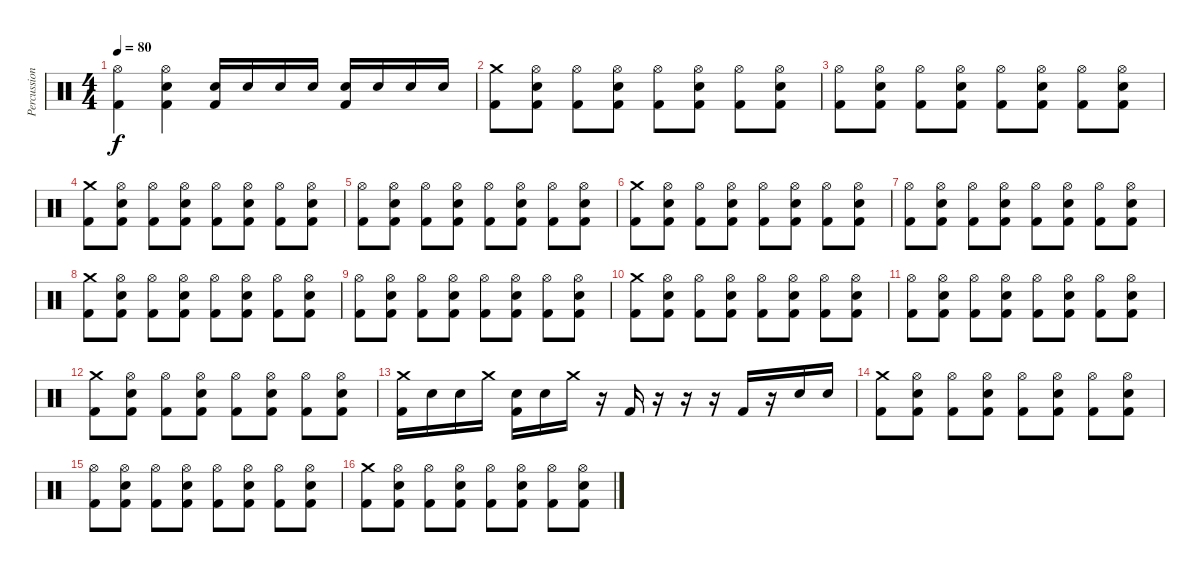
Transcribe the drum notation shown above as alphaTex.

\track ("Percussion" "Percussion") {instrument percussion}
\staff {score}
\articulation defaults
\ts (4 4)
\tempo 80
\clef neutral
\ks c
("Hi-Hat (open)" "Kick (hit) 2").4{dy f} ("Hi-Hat (open)" "Electric Snare (hit)" "Kick (hit) 2").4 ("Electric Snare (hit)" "Kick (hit) 2").16 "Electric Snare (hit)".16 "Electric Snare (hit)".16 "Electric Snare (hit)".16 ("Electric Snare (hit)" "Kick (hit) 2").16 "Electric Snare (hit)".16 "Electric Snare (hit)".16 "Electric Snare (hit)".16 |
("Crash medium (hit)" "Kick (hit) 2").8 ("Hi-Hat (open)" "Electric Snare (hit)" "Kick (hit) 2").8 ("Hi-Hat (open)" "Kick (hit) 2").8 ("Hi-Hat (open)" "Electric Snare (hit)" "Kick (hit) 2").8 ("Hi-Hat (open)" "Kick (hit) 2").8 ("Hi-Hat (open)" "Electric Snare (hit)" "Kick (hit) 2").8 ("Hi-Hat (open)" "Kick (hit) 2").8 ("Hi-Hat (open)" "Electric Snare (hit)" "Kick (hit) 2").8 |
("Hi-Hat (open)" "Kick (hit) 2").8 ("Hi-Hat (open)" "Electric Snare (hit)" "Kick (hit) 2").8 ("Hi-Hat (open)" "Kick (hit) 2").8 ("Hi-Hat (open)" "Electric Snare (hit)" "Kick (hit) 2").8 ("Hi-Hat (open)" "Kick (hit) 2").8 ("Hi-Hat (open)" "Electric Snare (hit)" "Kick (hit) 2").8 ("Hi-Hat (open)" "Kick (hit) 2").8 ("Hi-Hat (open)" "Electric Snare (hit)" "Kick (hit) 2").8 |
("Crash medium (hit)" "Kick (hit) 2").8 ("Hi-Hat (open)" "Electric Snare (hit)" "Kick (hit) 2").8 ("Hi-Hat (open)" "Kick (hit) 2").8 ("Hi-Hat (open)" "Electric Snare (hit)" "Kick (hit) 2").8 ("Hi-Hat (open)" "Kick (hit) 2").8 ("Hi-Hat (open)" "Electric Snare (hit)" "Kick (hit) 2").8 ("Hi-Hat (open)" "Kick (hit) 2").8 ("Hi-Hat (open)" "Electric Snare (hit)" "Kick (hit) 2").8 |
("Hi-Hat (open)" "Kick (hit) 2").8 ("Hi-Hat (open)" "Electric Snare (hit)" "Kick (hit) 2").8 ("Hi-Hat (open)" "Kick (hit) 2").8 ("Hi-Hat (open)" "Electric Snare (hit)" "Kick (hit) 2").8 ("Hi-Hat (open)" "Kick (hit) 2").8 ("Hi-Hat (open)" "Electric Snare (hit)" "Kick (hit) 2").8 ("Hi-Hat (open)" "Kick (hit) 2").8 ("Hi-Hat (open)" "Electric Snare (hit)" "Kick (hit) 2").8 |
("Crash medium (hit)" "Kick (hit) 2").8 ("Hi-Hat (open)" "Electric Snare (hit)" "Kick (hit) 2").8 ("Hi-Hat (open)" "Kick (hit) 2").8 ("Hi-Hat (open)" "Electric Snare (hit)" "Kick (hit) 2").8 ("Hi-Hat (open)" "Kick (hit) 2").8 ("Hi-Hat (open)" "Electric Snare (hit)" "Kick (hit) 2").8 ("Hi-Hat (open)" "Kick (hit) 2").8 ("Hi-Hat (open)" "Electric Snare (hit)" "Kick (hit) 2").8 |
("Hi-Hat (open)" "Kick (hit) 2").8 ("Hi-Hat (open)" "Electric Snare (hit)" "Kick (hit) 2").8 ("Hi-Hat (open)" "Kick (hit) 2").8 ("Hi-Hat (open)" "Electric Snare (hit)" "Kick (hit) 2").8 ("Hi-Hat (open)" "Kick (hit) 2").8 ("Hi-Hat (open)" "Electric Snare (hit)" "Kick (hit) 2").8 ("Hi-Hat (open)" "Kick (hit) 2").8 ("Hi-Hat (open)" "Electric Snare (hit)" "Kick (hit) 2").8 |
("Crash medium (hit)" "Kick (hit) 2").8 ("Hi-Hat (open)" "Electric Snare (hit)" "Kick (hit) 2").8 ("Hi-Hat (open)" "Kick (hit) 2").8 ("Hi-Hat (open)" "Electric Snare (hit)" "Kick (hit) 2").8 ("Hi-Hat (open)" "Kick (hit) 2").8 ("Hi-Hat (open)" "Electric Snare (hit)" "Kick (hit) 2").8 ("Hi-Hat (open)" "Kick (hit) 2").8 ("Hi-Hat (open)" "Electric Snare (hit)" "Kick (hit) 2").8 |
("Hi-Hat (open)" "Kick (hit) 2").8 ("Hi-Hat (open)" "Electric Snare (hit)" "Kick (hit) 2").8 ("Hi-Hat (open)" "Kick (hit) 2").8 ("Hi-Hat (open)" "Electric Snare (hit)" "Kick (hit) 2").8 ("Hi-Hat (open)" "Kick (hit) 2").8 ("Hi-Hat (open)" "Electric Snare (hit)" "Kick (hit) 2").8 ("Hi-Hat (open)" "Kick (hit) 2").8 ("Hi-Hat (open)" "Electric Snare (hit)" "Kick (hit) 2").8 |
("Crash medium (hit)" "Kick (hit) 2").8 ("Hi-Hat (open)" "Electric Snare (hit)" "Kick (hit) 2").8 ("Hi-Hat (open)" "Kick (hit) 2").8 ("Hi-Hat (open)" "Electric Snare (hit)" "Kick (hit) 2").8 ("Hi-Hat (open)" "Kick (hit) 2").8 ("Hi-Hat (open)" "Electric Snare (hit)" "Kick (hit) 2").8 ("Hi-Hat (open)" "Kick (hit) 2").8 ("Hi-Hat (open)" "Electric Snare (hit)" "Kick (hit) 2").8 |
("Hi-Hat (open)" "Kick (hit) 2").8 ("Hi-Hat (open)" "Electric Snare (hit)" "Kick (hit) 2").8 ("Hi-Hat (open)" "Kick (hit) 2").8 ("Hi-Hat (open)" "Electric Snare (hit)" "Kick (hit) 2").8 ("Hi-Hat (open)" "Kick (hit) 2").8 ("Hi-Hat (open)" "Electric Snare (hit)" "Kick (hit) 2").8 ("Hi-Hat (open)" "Kick (hit) 2").8 ("Hi-Hat (open)" "Electric Snare (hit)" "Kick (hit) 2").8 |
("Crash medium (hit)" "Kick (hit) 2").8 ("Hi-Hat (open)" "Electric Snare (hit)" "Kick (hit) 2").8 ("Hi-Hat (open)" "Kick (hit) 2").8 ("Hi-Hat (open)" "Electric Snare (hit)" "Kick (hit) 2").8 ("Hi-Hat (open)" "Kick (hit) 2").8 ("Hi-Hat (open)" "Electric Snare (hit)" "Kick (hit) 2").8 ("Hi-Hat (open)" "Kick (hit) 2").8 ("Hi-Hat (open)" "Electric Snare (hit)" "Kick (hit) 2").8 |
("Crash medium (hit)" "Kick (hit) 2").16 "Electric Snare (hit)".16 "Electric Snare (hit)".16 "Crash medium (hit)".16 ("Electric Snare (hit)" "Kick (hit) 2").16 "Electric Snare (hit)".16 "Crash medium (hit)".16 r.16 "Kick (hit) 2".16 r.16 r.16 r.16 "Kick (hit) 2".16 r.16 "Electric Snare (hit)".16 "Electric Snare (hit)".16 |
("Crash medium (hit)" "Kick (hit) 2").8 ("Hi-Hat (open)" "Electric Snare (hit)" "Kick (hit) 2").8 ("Hi-Hat (open)" "Kick (hit) 2").8 ("Hi-Hat (open)" "Electric Snare (hit)" "Kick (hit) 2").8 ("Hi-Hat (open)" "Kick (hit) 2").8 ("Hi-Hat (open)" "Electric Snare (hit)" "Kick (hit) 2").8 ("Hi-Hat (open)" "Kick (hit) 2").8 ("Hi-Hat (open)" "Electric Snare (hit)" "Kick (hit) 2").8 |
("Hi-Hat (open)" "Kick (hit) 2").8 ("Hi-Hat (open)" "Electric Snare (hit)" "Kick (hit) 2").8 ("Hi-Hat (open)" "Kick (hit) 2").8 ("Hi-Hat (open)" "Electric Snare (hit)" "Kick (hit) 2").8 ("Hi-Hat (open)" "Kick (hit) 2").8 ("Hi-Hat (open)" "Electric Snare (hit)" "Kick (hit) 2").8 ("Hi-Hat (open)" "Kick (hit) 2").8 ("Hi-Hat (open)" "Electric Snare (hit)" "Kick (hit) 2").8 |
("Crash medium (hit)" "Kick (hit) 2").8 ("Hi-Hat (open)" "Electric Snare (hit)" "Kick (hit) 2").8 ("Hi-Hat (open)" "Kick (hit) 2").8 ("Hi-Hat (open)" "Electric Snare (hit)" "Kick (hit) 2").8 ("Hi-Hat (open)" "Kick (hit) 2").8 ("Hi-Hat (open)" "Electric Snare (hit)" "Kick (hit) 2").8 ("Hi-Hat (open)" "Kick (hit) 2").8 ("Hi-Hat (open)" "Electric Snare (hit)" "Kick (hit) 2").8
